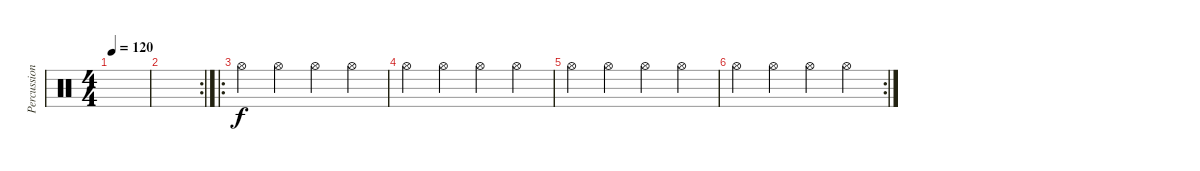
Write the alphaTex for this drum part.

\track ("Percussion" "Percussion") {instrument percussion}
\staff {score}
\articulation defaults
\ts (4 4)
\tempo 120
\clef neutral
\ks c
|
\rc 2
|
\ro "Hi-Hat (open)".4 "Hi-Hat (open)".4 "Hi-Hat (open)".4 "Hi-Hat (open)".4
|
"Hi-Hat (open)".4 "Hi-Hat (open)".4 "Hi-Hat (open)".4 "Hi-Hat (open)".4 |
"Hi-Hat (open)".4 "Hi-Hat (open)".4 "Hi-Hat (open)".4 "Hi-Hat (open)".4 |
\rc 2 "Hi-Hat (open)".4 "Hi-Hat (open)".4 "Hi-Hat (open)".4 "Hi-Hat (open)".4
